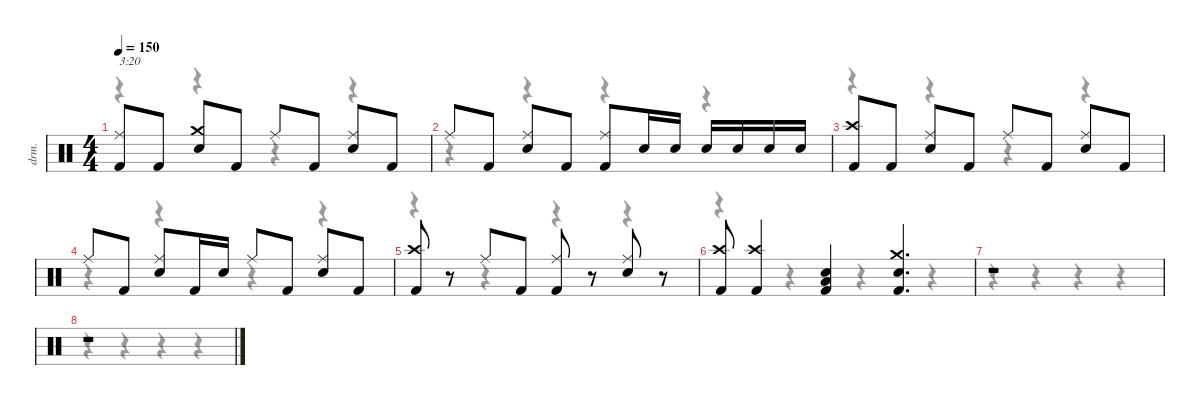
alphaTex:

\defaultSystemsLayout 4
\hideDynamics
\bracketExtendMode nobrackets
\otherSystemsTrackNameOrientation horizontal
\track ("Drums" "drm.") {instrument percussion}
\staff {score}
\articulation defaults
\voice
\ts (4 4)
\tempo 150
\clef neutral
\ks c
("Ride (middle)" "Kick (hit) 2").8{txt "3:20" dy f beam Up} "Kick (hit) 2".8{dy fff beam Up} ("Crash medium (hit)" "Snare (hit) 2").8{dy f beam Up} "Kick (hit) 2".8{dy fff beam Up} "Ride (middle)".8{dy f beam Up} "Kick (hit) 2".8{dy fff beam Up} ("Ride (middle)" "Snare (hit) 2").8{dy f beam Up} "Kick (hit) 2".8{dy fff beam Up} |
"Ride (middle)".8{dy f beam Up} "Kick (hit) 2".8{dy fff beam Up} ("Ride (middle)" "Snare (hit) 2").8{dy f beam Up} "Kick (hit) 2".8{dy fff beam Up} ("Ride (middle)" "Kick (hit) 2").8{dy f beam Up} "Snare (hit) 2".16{dy fff beam Up} "Snare (hit) 2".16{beam Up} "Snare (hit) 2".16{beam Up} "Snare (hit) 2".16{beam Up} "Snare (hit) 2".16{beam Up} "Snare (hit) 2".16{beam Up} |
("Crash high (hit)" "Kick (hit) 2").8{dy f beam Up} "Kick (hit) 2".8{dy fff beam Up} ("Ride (middle)" "Snare (hit) 2").8{dy f beam Up} "Kick (hit) 2".8{dy fff beam Up} "Ride (middle)".8{dy f beam Up} "Kick (hit) 2".8{dy fff beam Up} ("Ride (middle)" "Snare (hit) 2").8{dy f beam Up} "Kick (hit) 2".8{dy fff beam Up} |
"Ride (middle)".8{dy f beam Up} "Kick (hit) 2".8{dy fff beam Up} ("Ride (middle)" "Snare (hit) 2").8{dy f beam Up} "Kick (hit) 2".16{dy fff beam Up} "Snare (hit) 2".16{beam Up} "Ride (middle)".8{dy f beam Up} "Kick (hit) 2".8{dy fff beam Up} ("Ride (middle)" "Snare (hit) 2").8{dy f beam Up} "Kick (hit) 2".8{dy fff beam Up} |
("Crash high (hit)" "Kick (hit) 2").8{dy f beam Up} r.8{beam Up} "Ride (middle)".8{beam Up} "Kick (hit) 2".8{dy fff beam Up} ("Ride (middle)" "Kick (hit) 2").8{dy f beam Up} r.8{beam Up} ("Ride (middle)" "Snare (hit) 2").8{beam Up} r.8{beam Up} |
("Crash high (hit)" "Kick (hit) 2").8{beam Up} ("Crash high (hit)" "Kick (hit) 2").4{beam Up} ("Low Floor Tom (hit)" "Snare (hit) 2" "Kick (hit) 2").4{beam Up} ("Crash medium (hit)" "Snare (hit) 2" "Kick (hit) 2").4{d beam Up} |
r.1{beam Up} |
r.1{beam Up}
\voice
\clef neutral
\ottava regular
\simile none
\ks c
r.4{dy mf beam Down} r.4{beam Down} r.4{beam Down} r.4{beam Down} |
r.4{beam Down} r.4{beam Down} r.4{beam Down} r.4{beam Down} |
r.4{beam Down} r.4{beam Down} r.4{beam Down} r.4{beam Down} |
r.4{beam Down} r.4{beam Down} r.4{beam Down} r.4{beam Down} |
r.4{beam Down} r.4{beam Down} r.4{beam Down} r.4{beam Down} |
r.4{beam Down} r.4{beam Down} r.4{beam Down} r.4{beam Down} |
r.4{beam Down} r.4{beam Down} r.4{beam Down} r.4{beam Down} |
r.4{beam Down} r.4{beam Down} r.4{beam Down} r.4{beam Down}
